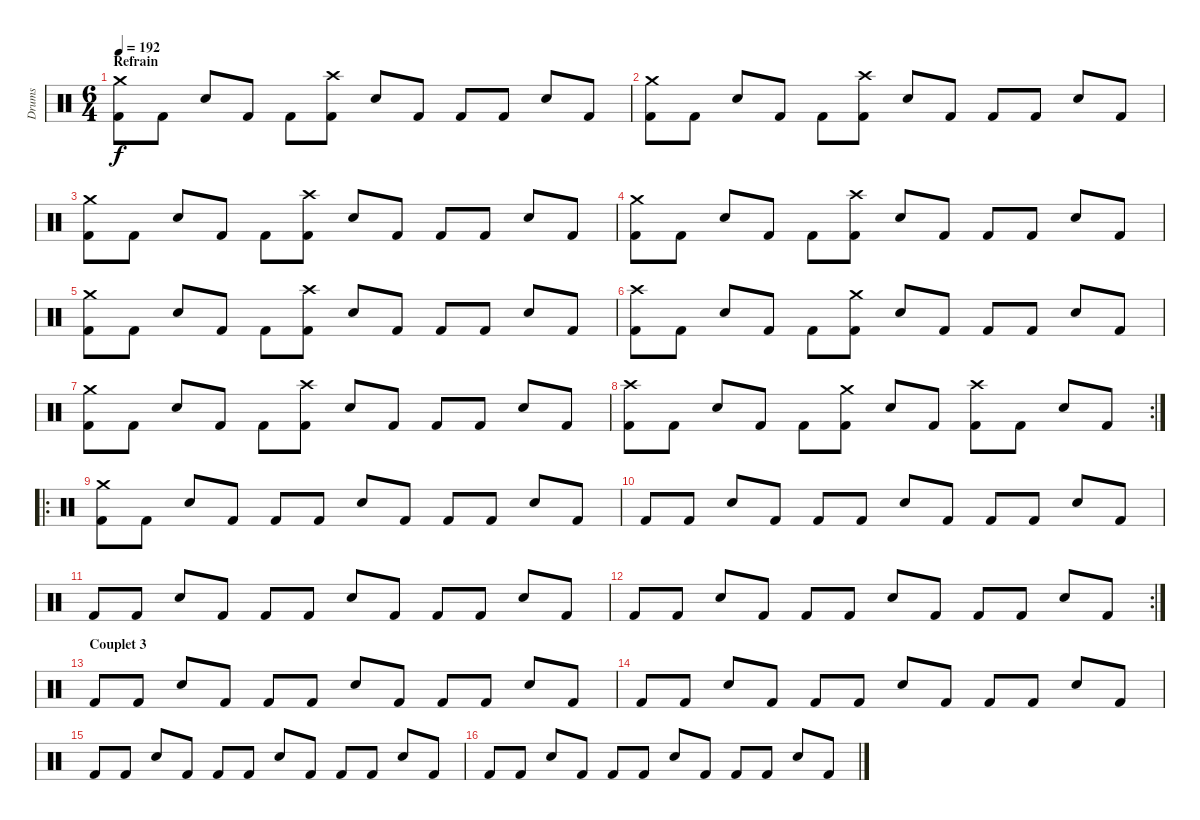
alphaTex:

\track ("Drums" "Drums") {instrument percussion}
\staff {score}
\articulation defaults
\ts (6 4)
\section ("" "Refrain")
\tempo 192
\clef neutral
\ks c
("Crash medium (hit)" "Kick (hit) 2").8{dy f} "Kick (hit) 2".8 "Snare (hit) 2".8 "Kick (hit) 2".8 "Kick (hit) 2".8 ("Crash high (hit)" "Kick (hit) 2").8 "Snare (hit) 2".8 "Kick (hit) 2".8 "Kick (hit) 2".8 "Kick (hit) 2".8 "Snare (hit) 2".8 "Kick (hit) 2".8 |
("Crash medium (hit)" "Kick (hit) 2").8 "Kick (hit) 2".8 "Snare (hit) 2".8 "Kick (hit) 2".8 "Kick (hit) 2".8 ("Crash high (hit)" "Kick (hit) 2").8 "Snare (hit) 2".8 "Kick (hit) 2".8 "Kick (hit) 2".8 "Kick (hit) 2".8 "Snare (hit) 2".8 "Kick (hit) 2".8 |
("Crash medium (hit)" "Kick (hit) 2").8 "Kick (hit) 2".8 "Snare (hit) 2".8 "Kick (hit) 2".8 "Kick (hit) 2".8 ("Crash high (hit)" "Kick (hit) 2").8 "Snare (hit) 2".8 "Kick (hit) 2".8 "Kick (hit) 2".8 "Kick (hit) 2".8 "Snare (hit) 2".8 "Kick (hit) 2".8 |
("Crash medium (hit)" "Kick (hit) 2").8 "Kick (hit) 2".8 "Snare (hit) 2".8 "Kick (hit) 2".8 "Kick (hit) 2".8 ("Crash high (hit)" "Kick (hit) 2").8 "Snare (hit) 2".8 "Kick (hit) 2".8 "Kick (hit) 2".8 "Kick (hit) 2".8 "Snare (hit) 2".8 "Kick (hit) 2".8 |
("Crash medium (hit)" "Kick (hit) 2").8 "Kick (hit) 2".8 "Snare (hit) 2".8 "Kick (hit) 2".8 "Kick (hit) 2".8 ("Crash high (hit)" "Kick (hit) 2").8 "Snare (hit) 2".8 "Kick (hit) 2".8 "Kick (hit) 2".8 "Kick (hit) 2".8 "Snare (hit) 2".8 "Kick (hit) 2".8 |
("Crash high (hit)" "Kick (hit) 2").8 "Kick (hit) 2".8 "Snare (hit) 2".8 "Kick (hit) 2".8 "Kick (hit) 2".8 ("Crash medium (hit)" "Kick (hit) 2").8 "Snare (hit) 2".8 "Kick (hit) 2".8 "Kick (hit) 2".8 "Kick (hit) 2".8 "Snare (hit) 2".8 "Kick (hit) 2".8 |
("Crash medium (hit)" "Kick (hit) 2").8 "Kick (hit) 2".8 "Snare (hit) 2".8 "Kick (hit) 2".8 "Kick (hit) 2".8 ("Crash high (hit)" "Kick (hit) 2").8 "Snare (hit) 2".8 "Kick (hit) 2".8 "Kick (hit) 2".8 "Kick (hit) 2".8 "Snare (hit) 2".8 "Kick (hit) 2".8 |
\rc 2
("Crash high (hit)" "Kick (hit) 2").8 "Kick (hit) 2".8 "Snare (hit) 2".8 "Kick (hit) 2".8 "Kick (hit) 2".8 ("Crash medium (hit)" "Kick (hit) 2").8 "Snare (hit) 2".8 "Kick (hit) 2".8 ("Crash high (hit)" "Kick (hit) 2").8 "Kick (hit) 2".8 "Snare (hit) 2".8 "Kick (hit) 2".8 |
\ro
("Crash medium (hit)" "Kick (hit) 2").8 "Kick (hit) 2".8 "Snare (hit) 2".8 "Kick (hit) 2".8 "Kick (hit) 2".8 "Kick (hit) 2".8 "Snare (hit) 2".8 "Kick (hit) 2".8 "Kick (hit) 2".8 "Kick (hit) 2".8 "Snare (hit) 2".8 "Kick (hit) 2".8 |
"Kick (hit) 2".8 "Kick (hit) 2".8 "Snare (hit) 2".8 "Kick (hit) 2".8 "Kick (hit) 2".8 "Kick (hit) 2".8 "Snare (hit) 2".8 "Kick (hit) 2".8 "Kick (hit) 2".8 "Kick (hit) 2".8 "Snare (hit) 2".8 "Kick (hit) 2".8 |
"Kick (hit) 2".8 "Kick (hit) 2".8 "Snare (hit) 2".8 "Kick (hit) 2".8 "Kick (hit) 2".8 "Kick (hit) 2".8 "Snare (hit) 2".8 "Kick (hit) 2".8 "Kick (hit) 2".8 "Kick (hit) 2".8 "Snare (hit) 2".8 "Kick (hit) 2".8 |
\rc 2 "Kick (hit) 2".8 "Kick (hit) 2".8 "Snare (hit) 2".8 "Kick (hit) 2".8 "Kick (hit) 2".8 "Kick (hit) 2".8 "Snare (hit) 2".8 "Kick (hit) 2".8 "Kick (hit) 2".8 "Kick (hit) 2".8 "Snare (hit) 2".8 "Kick (hit) 2".8
|
\section ("" "Couplet 3")
"Kick (hit) 2".8 "Kick (hit) 2".8 "Snare (hit) 2".8 "Kick (hit) 2".8 "Kick (hit) 2".8 "Kick (hit) 2".8 "Snare (hit) 2".8 "Kick (hit) 2".8 "Kick (hit) 2".8 "Kick (hit) 2".8 "Snare (hit) 2".8 "Kick (hit) 2".8 |
"Kick (hit) 2".8 "Kick (hit) 2".8 "Snare (hit) 2".8 "Kick (hit) 2".8 "Kick (hit) 2".8 "Kick (hit) 2".8 "Snare (hit) 2".8 "Kick (hit) 2".8 "Kick (hit) 2".8 "Kick (hit) 2".8 "Snare (hit) 2".8 "Kick (hit) 2".8 |
"Kick (hit) 2".8 "Kick (hit) 2".8 "Snare (hit) 2".8 "Kick (hit) 2".8 "Kick (hit) 2".8 "Kick (hit) 2".8 "Snare (hit) 2".8 "Kick (hit) 2".8 "Kick (hit) 2".8 "Kick (hit) 2".8 "Snare (hit) 2".8 "Kick (hit) 2".8 |
"Kick (hit) 2".8 "Kick (hit) 2".8 "Snare (hit) 2".8 "Kick (hit) 2".8 "Kick (hit) 2".8 "Kick (hit) 2".8 "Snare (hit) 2".8 "Kick (hit) 2".8 "Kick (hit) 2".8 "Kick (hit) 2".8 "Snare (hit) 2".8 "Kick (hit) 2".8
